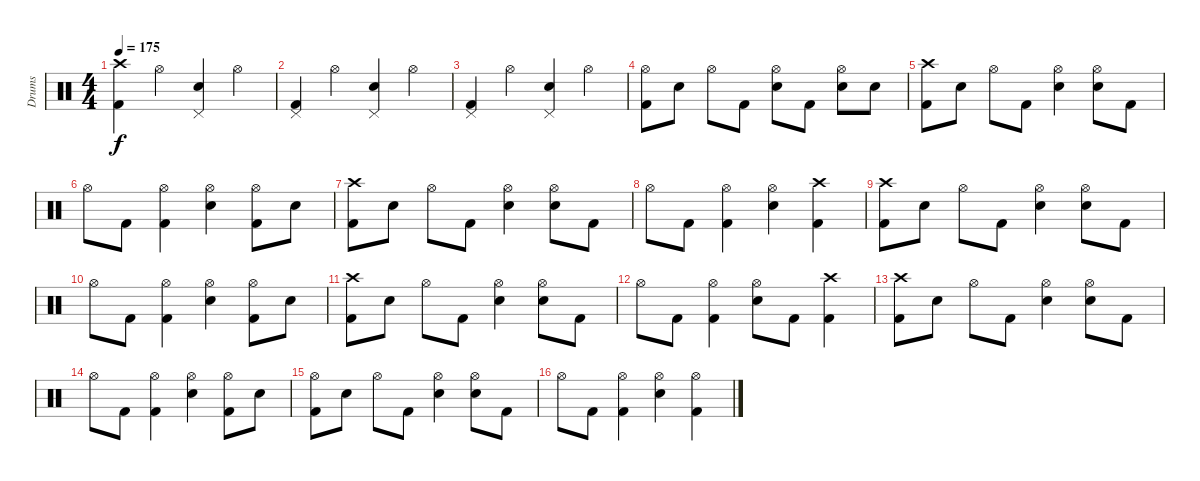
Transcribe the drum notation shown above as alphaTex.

\track ("Drums" "Drums") {instrument percussion}
\staff {score}
\articulation defaults
\ts (4 4)
\tempo 175
\clef neutral
\ks c
("Crash high (hit)" "Kick (hit) 2").4{dy f} "Hi-Hat (open)".4 ("Pedal Hi-Hat (hit)" "Electric Snare (hit)").4 "Hi-Hat (open)".4 |
("Pedal Hi-Hat (hit)" "Kick (hit) 2").4 "Hi-Hat (open)".4 ("Pedal Hi-Hat (hit)" "Electric Snare (hit)").4 "Hi-Hat (open)".4 |
("Pedal Hi-Hat (hit)" "Kick (hit) 2").4 "Hi-Hat (open)".4 ("Pedal Hi-Hat (hit)" "Electric Snare (hit)").4 "Hi-Hat (open)".4 |
("Hi-Hat (open)" "Kick (hit) 2").8 "Electric Snare (hit)".8 "Hi-Hat (open)".8 "Kick (hit) 2".8 ("Hi-Hat (open)" "Electric Snare (hit)").8 "Kick (hit) 2".8 ("Hi-Hat (open)" "Electric Snare (hit)").8 "Electric Snare (hit)".8 |
("Crash high (hit)" "Kick (hit) 2").8 "Electric Snare (hit)".8 "Hi-Hat (open)".8 "Kick (hit) 2".8 ("Hi-Hat (open)" "Electric Snare (hit)").4 ("Hi-Hat (open)" "Electric Snare (hit)").8 "Kick (hit) 2".8 |
"Hi-Hat (open)".8 "Kick (hit) 2".8 ("Hi-Hat (open)" "Kick (hit) 2").4 ("Hi-Hat (open)" "Electric Snare (hit)").4 ("Hi-Hat (open)" "Kick (hit) 2").8 "Electric Snare (hit)".8 |
("Crash high (hit)" "Kick (hit) 2").8 "Electric Snare (hit)".8 "Hi-Hat (open)".8 "Kick (hit) 2".8 ("Hi-Hat (open)" "Electric Snare (hit)").4 ("Hi-Hat (open)" "Electric Snare (hit)").8 "Kick (hit) 2".8 |
"Hi-Hat (open)".8 "Kick (hit) 2".8 ("Hi-Hat (open)" "Kick (hit) 2").4 ("Hi-Hat (open)" "Electric Snare (hit)").4 ("Crash high (hit)" "Kick (hit) 2").4 |
("Crash high (hit)" "Kick (hit) 2").8 "Electric Snare (hit)".8 "Hi-Hat (open)".8 "Kick (hit) 2".8 ("Hi-Hat (open)" "Electric Snare (hit)").4 ("Hi-Hat (open)" "Electric Snare (hit)").8 "Kick (hit) 2".8 |
"Hi-Hat (open)".8 "Kick (hit) 2".8 ("Hi-Hat (open)" "Kick (hit) 2").4 ("Hi-Hat (open)" "Electric Snare (hit)").4 ("Hi-Hat (open)" "Kick (hit) 2").8 "Electric Snare (hit)".8 |
("Crash high (hit)" "Kick (hit) 2").8 "Electric Snare (hit)".8 "Hi-Hat (open)".8 "Kick (hit) 2".8 ("Hi-Hat (open)" "Electric Snare (hit)").4 ("Hi-Hat (open)" "Electric Snare (hit)").8 "Kick (hit) 2".8 |
"Hi-Hat (open)".8 "Kick (hit) 2".8 ("Hi-Hat (open)" "Kick (hit) 2").4 ("Hi-Hat (open)" "Electric Snare (hit)").8 "Kick (hit) 2".8 ("Crash high (hit)" "Kick (hit) 2").4 |
("Crash high (hit)" "Kick (hit) 2").8 "Electric Snare (hit)".8 "Hi-Hat (open)".8 "Kick (hit) 2".8 ("Hi-Hat (open)" "Electric Snare (hit)").4 ("Hi-Hat (open)" "Electric Snare (hit)").8 "Kick (hit) 2".8 |
"Hi-Hat (open)".8 "Kick (hit) 2".8 ("Hi-Hat (open)" "Kick (hit) 2").4 ("Hi-Hat (open)" "Electric Snare (hit)").4 ("Hi-Hat (open)" "Kick (hit) 2").8 "Electric Snare (hit)".8 |
("Hi-Hat (open)" "Kick (hit) 2").8 "Electric Snare (hit)".8 "Hi-Hat (open)".8 "Kick (hit) 2".8 ("Hi-Hat (open)" "Electric Snare (hit)").4 ("Hi-Hat (open)" "Electric Snare (hit)").8 "Kick (hit) 2".8 |
"Hi-Hat (open)".8 "Kick (hit) 2".8 ("Hi-Hat (open)" "Kick (hit) 2").4 ("Hi-Hat (open)" "Electric Snare (hit)").4 ("Hi-Hat (open)" "Kick (hit) 2").4
